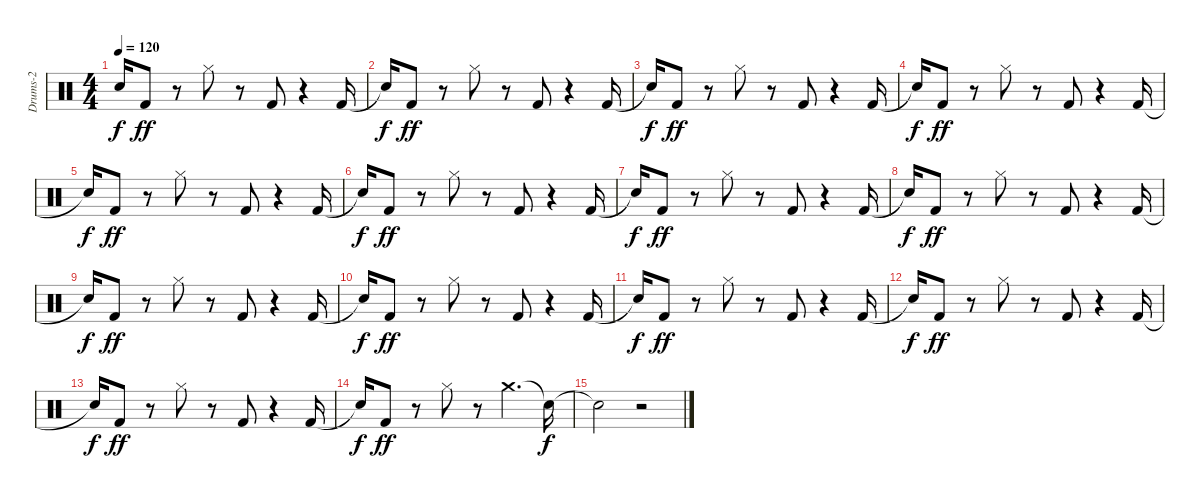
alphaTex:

\track ("Drums-2" "Drums-2") {instrument percussion}
\staff {score}
\articulation defaults
\ts (4 4)
\tempo 120
\clef neutral
\ks c "Snare (hit)"{t}.16{dy f} "Kick (hit) 2".8{dy ff}
r.8 "Hi-Hat (closed)".8 r.8 "Kick (hit) 2".8 r.4 "Kick (hit) 2".16 |
"Snare (hit)"{t}.16{dy f} "Kick (hit) 2".8{dy ff} r.8 "Hi-Hat (closed)".8 r.8 "Kick (hit) 2".8 r.4 "Kick (hit) 2".16 |
"Snare (hit)"{t}.16{dy f} "Kick (hit) 2".8{dy ff} r.8 "Hi-Hat (closed)".8 r.8 "Kick (hit) 2".8 r.4 "Kick (hit) 2".16 |
"Snare (hit)"{t}.16{dy f} "Kick (hit) 2".8{dy ff} r.8 "Hi-Hat (closed)".8 r.8 "Kick (hit) 2".8 r.4 "Kick (hit) 2".16 |
"Snare (hit)"{t}.16{dy f} "Kick (hit) 2".8{dy ff} r.8 "Hi-Hat (closed)".8 r.8 "Kick (hit) 2".8 r.4 "Kick (hit) 2".16 |
"Snare (hit)"{t}.16{dy f} "Kick (hit) 2".8{dy ff} r.8 "Hi-Hat (closed)".8 r.8 "Kick (hit) 2".8 r.4 "Kick (hit) 2".16 |
"Snare (hit)"{t}.16{dy f} "Kick (hit) 2".8{dy ff} r.8 "Hi-Hat (closed)".8 r.8 "Kick (hit) 2".8 r.4 "Kick (hit) 2".16 |
"Snare (hit)"{t}.16{dy f} "Kick (hit) 2".8{dy ff} r.8 "Hi-Hat (closed)".8 r.8 "Kick (hit) 2".8 r.4 "Kick (hit) 2".16 |
"Snare (hit)"{t}.16{dy f} "Kick (hit) 2".8{dy ff} r.8 "Hi-Hat (closed)".8 r.8 "Kick (hit) 2".8 r.4 "Kick (hit) 2".16 |
"Snare (hit)"{t}.16{dy f} "Kick (hit) 2".8{dy ff} r.8 "Hi-Hat (closed)".8 r.8 "Kick (hit) 2".8 r.4 "Kick (hit) 2".16 |
"Snare (hit)"{t}.16{dy f} "Kick (hit) 2".8{dy ff} r.8 "Hi-Hat (closed)".8 r.8 "Kick (hit) 2".8 r.4 "Kick (hit) 2".16 |
"Snare (hit)"{t}.16{dy f} "Kick (hit) 2".8{dy ff} r.8 "Hi-Hat (closed)".8 r.8 "Kick (hit) 2".8 r.4 "Kick (hit) 2".16 |
"Snare (hit)"{t}.16{dy f} "Kick (hit) 2".8{dy ff} r.8 "Hi-Hat (closed)".8 r.8 "Kick (hit) 2".8 r.4 "Kick (hit) 2".16 |
"Snare (hit)"{t}.16{dy f} "Kick (hit) 2".8{dy ff} r.8 "Hi-Hat (closed)".8 r.8 "Crash medium (hit)".4{d} "Snare (hit)"{t}.16{dy f} |
"Snare (hit)"{t}.2 r.2
